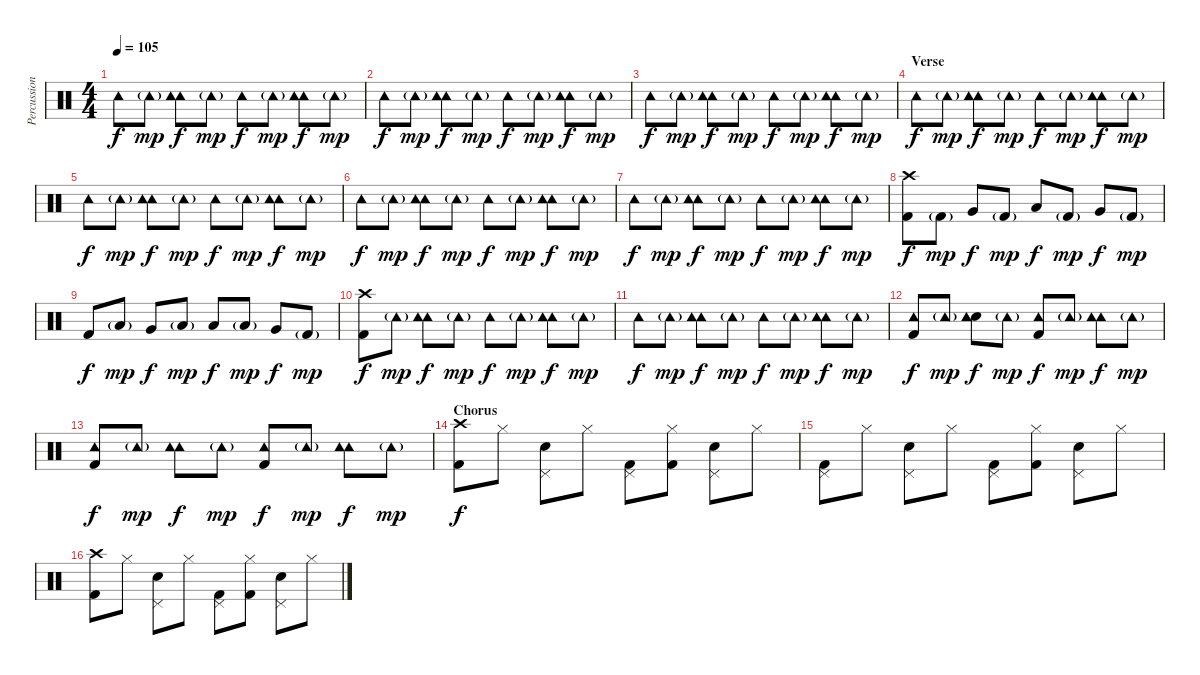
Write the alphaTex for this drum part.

\track ("Percussion" "Percussion") {instrument percussion}
\staff {score}
\articulation defaults
\ts (4 4)
\tempo 105
\clef neutral
\ks c "Tambourine (hit)".8{dy f} "Tambourine (hit)"{g}.8{dy mp}
("Tambourine (hit)" "Tambourine (hit)").8{dy f} "Tambourine (hit)"{g}.8{dy mp} "Tambourine (hit)".8{dy f} "Tambourine (hit)"{g}.8{dy mp} ("Tambourine (hit)" "Tambourine (hit)").8{dy f} "Tambourine (hit)"{g}.8{dy mp} |
"Tambourine (hit)".8{dy f} "Tambourine (hit)"{g}.8{dy mp} ("Tambourine (hit)" "Tambourine (hit)").8{dy f} "Tambourine (hit)"{g}.8{dy mp} "Tambourine (hit)".8{dy f} "Tambourine (hit)"{g}.8{dy mp} ("Tambourine (hit)" "Tambourine (hit)").8{dy f} "Tambourine (hit)"{g}.8{dy mp} |
"Tambourine (hit)".8{dy f} "Tambourine (hit)"{g}.8{dy mp} ("Tambourine (hit)" "Tambourine (hit)").8{dy f} "Tambourine (hit)"{g}.8{dy mp} "Tambourine (hit)".8{dy f} "Tambourine (hit)"{g}.8{dy mp} ("Tambourine (hit)" "Tambourine (hit)").8{dy f} "Tambourine (hit)"{g}.8{dy mp} |
\section ("" "Verse")
"Tambourine (hit)".8{dy f} "Tambourine (hit)"{g}.8{dy mp} ("Tambourine (hit)" "Tambourine (hit)").8{dy f} "Tambourine (hit)"{g}.8{dy mp} "Tambourine (hit)".8{dy f} "Tambourine (hit)"{g}.8{dy mp} ("Tambourine (hit)" "Tambourine (hit)").8{dy f} "Tambourine (hit)"{g}.8{dy mp} |
"Tambourine (hit)".8{dy f} "Tambourine (hit)"{g}.8{dy mp} ("Tambourine (hit)" "Tambourine (hit)").8{dy f} "Tambourine (hit)"{g}.8{dy mp} "Tambourine (hit)".8{dy f} "Tambourine (hit)"{g}.8{dy mp} ("Tambourine (hit)" "Tambourine (hit)").8{dy f} "Tambourine (hit)"{g}.8{dy mp} |
"Tambourine (hit)".8{dy f} "Tambourine (hit)"{g}.8{dy mp} ("Tambourine (hit)" "Tambourine (hit)").8{dy f} "Tambourine (hit)"{g}.8{dy mp} "Tambourine (hit)".8{dy f} "Tambourine (hit)"{g}.8{dy mp} ("Tambourine (hit)" "Tambourine (hit)").8{dy f} "Tambourine (hit)"{g}.8{dy mp} |
"Tambourine (hit)".8{dy f} "Tambourine (hit)"{g}.8{dy mp} ("Tambourine (hit)" "Tambourine (hit)").8{dy f} "Tambourine (hit)"{g}.8{dy mp} "Tambourine (hit)".8{dy f} "Tambourine (hit)"{g}.8{dy mp} ("Tambourine (hit)" "Tambourine (hit)").8{dy f} "Tambourine (hit)"{g}.8{dy mp} |
("Kick (hit) 2" "Crash high (hit)").8{dy f} "Kick (hit) 2"{g}.8{dy mp} "Very Low Tom (hit)".8{dy f} "Kick (hit) 2"{g}.8{dy mp} "Low Floor Tom (hit)".8{dy f} "Kick (hit) 2"{g}.8{dy mp} "Very Low Tom (hit)".8{dy f} "Kick (hit) 2"{g}.8{dy mp} |
"Kick (hit) 2".8{dy f} "Low Tom (hit)"{g}.8{dy mp} "Very Low Tom (hit)".8{dy f} "Low Tom (hit)"{g}.8{dy mp} "Low Floor Tom (hit)".8{dy f} "Low Tom (hit)"{g}.8{dy mp} "Very Low Tom (hit)".8{dy f} "Kick (hit) 2"{g}.8{dy mp} |
("Kick (hit) 2" "Crash high (hit)").8{dy f} "Tambourine (hit)"{g}.8{dy mp} ("Tambourine (hit)" "Tambourine (hit)").8{dy f} "Tambourine (hit)"{g}.8{dy mp} "Tambourine (hit)".8{dy f} "Tambourine (hit)"{g}.8{dy mp} ("Tambourine (hit)" "Tambourine (hit)").8{dy f} "Tambourine (hit)"{g}.8{dy mp} |
"Tambourine (hit)".8{dy f} "Tambourine (hit)"{g}.8{dy mp} ("Tambourine (hit)" "Tambourine (hit)").8{dy f} "Tambourine (hit)"{g}.8{dy mp} "Tambourine (hit)".8{dy f} "Tambourine (hit)"{g}.8{dy mp} ("Tambourine (hit)" "Tambourine (hit)").8{dy f} "Tambourine (hit)"{g}.8{dy mp} |
("Kick (hit) 2" "Tambourine (hit)").8{dy f} "Tambourine (hit)"{g}.8{dy mp} ("Electric Snare (hit)" "Tambourine (hit)" "Tambourine (hit)").8{dy f} "Tambourine (hit)"{g}.8{dy mp} ("Kick (hit) 2" "Tambourine (hit)").8{dy f} "Tambourine (hit)"{g}.8{dy mp} ("Tambourine (hit)" "Tambourine (hit)").8{dy f} "Tambourine (hit)"{g}.8{dy mp} |
("Kick (hit) 2" "Tambourine (hit)").8{dy f} "Tambourine (hit)"{g}.8{dy mp} ("Tambourine (hit)" "Tambourine (hit)").8{dy f} "Tambourine (hit)"{g}.8{dy mp} ("Kick (hit) 2" "Tambourine (hit)").8{dy f} "Tambourine (hit)"{g}.8{dy mp} ("Tambourine (hit)" "Tambourine (hit)").8{dy f} "Tambourine (hit)"{g}.8{dy mp} |
\section ("" "Chorus")
("Kick (hit) 2" "Crash high (hit)").8{dy f} "Hi-Hat (closed)".8 ("Electric Snare (hit)" "Pedal Hi-Hat (hit)").8 "Hi-Hat (closed)".8 ("Kick (hit) 2" "Pedal Hi-Hat (hit)").8 ("Kick (hit) 2" "Hi-Hat (closed)").8 ("Electric Snare (hit)" "Pedal Hi-Hat (hit)").8 "Hi-Hat (closed)".8 |
("Kick (hit) 2" "Pedal Hi-Hat (hit)").8 "Hi-Hat (closed)".8 ("Electric Snare (hit)" "Pedal Hi-Hat (hit)").8 "Hi-Hat (closed)".8 ("Kick (hit) 2" "Pedal Hi-Hat (hit)").8 ("Kick (hit) 2" "Hi-Hat (closed)").8 ("Electric Snare (hit)" "Pedal Hi-Hat (hit)").8 "Hi-Hat (closed)".8 |
("Kick (hit) 2" "Crash high (hit)").8 "Hi-Hat (closed)".8 ("Electric Snare (hit)" "Pedal Hi-Hat (hit)").8 "Hi-Hat (closed)".8 ("Kick (hit) 2" "Pedal Hi-Hat (hit)").8 ("Kick (hit) 2" "Hi-Hat (closed)").8 ("Electric Snare (hit)" "Pedal Hi-Hat (hit)").8 "Hi-Hat (closed)".8
